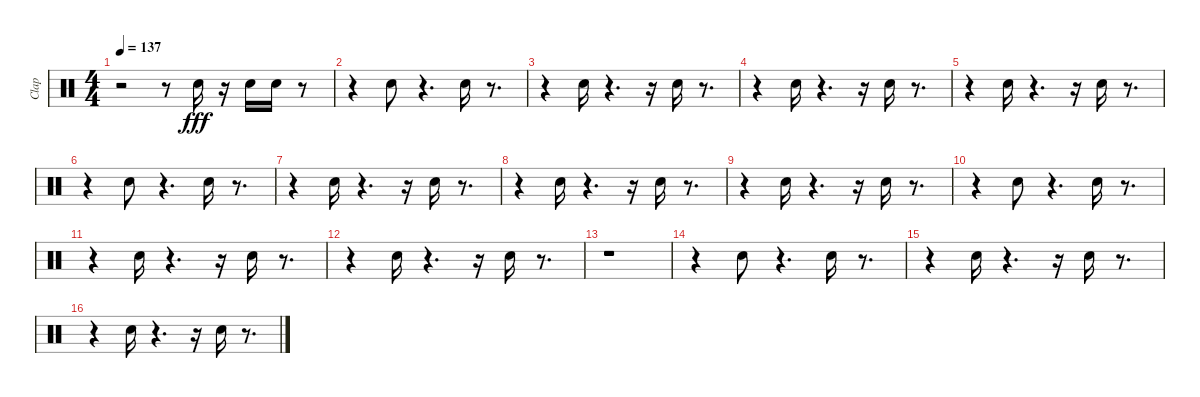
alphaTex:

\track ("Clap" "Clap") {instrument percussion}
\staff {score}
\articulation defaults
\ts (4 4)
\tempo 137
\clef neutral
\ks c
r.2{dy fff} r.8 "Hand Clap (hit)".16 r.16 "Hand Clap (hit)".16 "Hand Clap (hit)".16 r.8 |
r.4 "Hand Clap (hit)".8 r.4{d} "Hand Clap (hit)".16 r.8{d} |
r.4 "Hand Clap (hit)".16 r.4{d} r.16 "Hand Clap (hit)".16 r.8{d} |
r.4 "Hand Clap (hit)".16 r.4{d} r.16 "Hand Clap (hit)".16 r.8{d} |
r.4 "Hand Clap (hit)".16 r.4{d} r.16 "Hand Clap (hit)".16 r.8{d} |
r.4 "Hand Clap (hit)".8 r.4{d} "Hand Clap (hit)".16 r.8{d} |
r.4 "Hand Clap (hit)".16 r.4{d} r.16 "Hand Clap (hit)".16 r.8{d} |
r.4 "Hand Clap (hit)".16 r.4{d} r.16 "Hand Clap (hit)".16 r.8{d} |
r.4 "Hand Clap (hit)".16 r.4{d} r.16 "Hand Clap (hit)".16 r.8{d} |
r.4 "Hand Clap (hit)".8 r.4{d} "Hand Clap (hit)".16 r.8{d} |
r.4 "Hand Clap (hit)".16 r.4{d} r.16 "Hand Clap (hit)".16 r.8{d} |
r.4 "Hand Clap (hit)".16 r.4{d} r.16 "Hand Clap (hit)".16 r.8{d} |
r.1 |
r.4 "Hand Clap (hit)".8 r.4{d} "Hand Clap (hit)".16 r.8{d} |
r.4 "Hand Clap (hit)".16 r.4{d} r.16 "Hand Clap (hit)".16 r.8{d} |
r.4 "Hand Clap (hit)".16 r.4{d} r.16 "Hand Clap (hit)".16 r.8{d}
